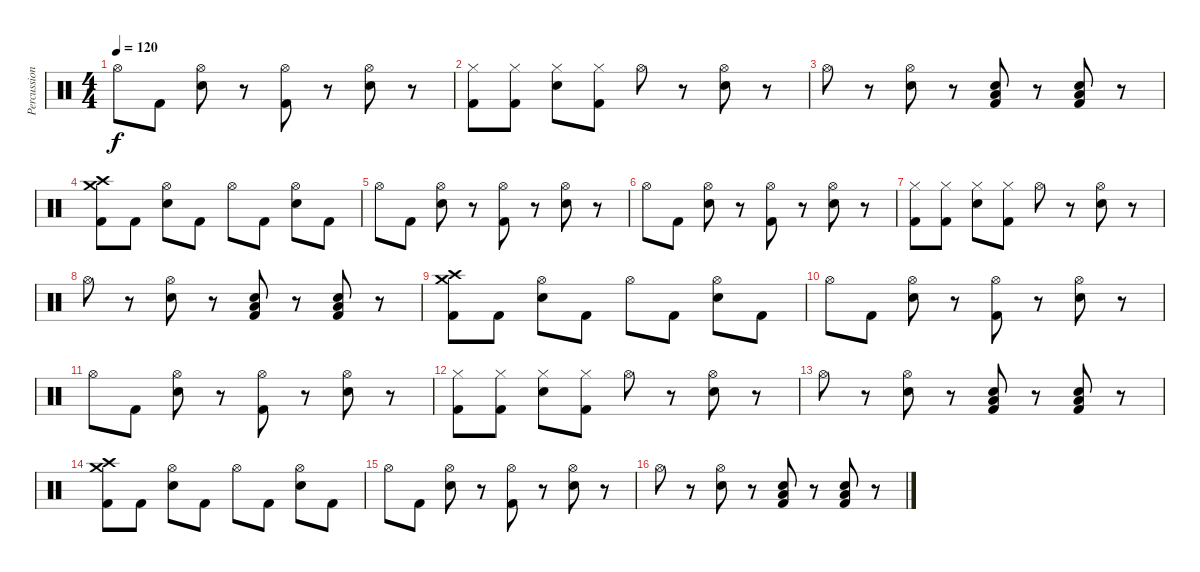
\track ("Percussion" "Percussion") {instrument percussion}
\staff {score}
\articulation defaults
\ts (4 4)
\tempo 120
\clef neutral
\ks c "Hi-Hat (open)".8{dy f} "Kick (hit) 2".8
("Hi-Hat (open)" "Electric Snare (hit)").8 r.8 ("Hi-Hat (open)" "Kick (hit) 2").8 r.8 ("Hi-Hat (open)" "Electric Snare (hit)").8 r.8 |
("Hi-Hat (closed)" "Kick (hit) 2").8 ("Hi-Hat (closed)" "Kick (hit) 2").8 ("Hi-Hat (closed)" "Electric Snare (hit)").8 ("Hi-Hat (closed)" "Kick (hit) 2").8 "Hi-Hat (open)".8 r.8 ("Hi-Hat (open)" "Electric Snare (hit)").8 r.8 |
"Hi-Hat (open)".8 r.8 ("Hi-Hat (open)" "Electric Snare (hit)").8 r.8 ("Electric Snare (hit)" "Low Floor Tom (hit)" "Kick (hit) 2").8 r.8 ("Electric Snare (hit)" "Low Floor Tom (hit)" "Kick (hit) 2").8 r.8 |
("Crash medium (hit)" "Crash high (hit)" "Kick (hit) 2").8 "Kick (hit) 2".8 ("Hi-Hat (open)" "Electric Snare (hit)").8 "Kick (hit) 2".8 "Hi-Hat (open)".8 "Kick (hit) 2".8 ("Hi-Hat (open)" "Electric Snare (hit)").8 "Kick (hit) 2".8 |
"Hi-Hat (open)".8 "Kick (hit) 2".8 ("Hi-Hat (open)" "Electric Snare (hit)").8 r.8 ("Hi-Hat (open)" "Kick (hit) 2").8 r.8 ("Hi-Hat (open)" "Electric Snare (hit)").8 r.8 |
"Hi-Hat (open)".8 "Kick (hit) 2".8 ("Hi-Hat (open)" "Electric Snare (hit)").8 r.8 ("Hi-Hat (open)" "Kick (hit) 2").8 r.8 ("Hi-Hat (open)" "Electric Snare (hit)").8 r.8 |
("Hi-Hat (closed)" "Kick (hit) 2").8 ("Hi-Hat (closed)" "Kick (hit) 2").8 ("Hi-Hat (closed)" "Electric Snare (hit)").8 ("Hi-Hat (closed)" "Kick (hit) 2").8 "Hi-Hat (open)".8 r.8 ("Hi-Hat (open)" "Electric Snare (hit)").8 r.8 |
"Hi-Hat (open)".8 r.8 ("Hi-Hat (open)" "Electric Snare (hit)").8 r.8 ("Electric Snare (hit)" "Low Floor Tom (hit)" "Kick (hit) 2").8 r.8 ("Electric Snare (hit)" "Low Floor Tom (hit)" "Kick (hit) 2").8 r.8 |
("Crash medium (hit)" "Crash high (hit)" "Kick (hit) 2").8 "Kick (hit) 2".8 ("Hi-Hat (open)" "Electric Snare (hit)").8 "Kick (hit) 2".8 "Hi-Hat (open)".8 "Kick (hit) 2".8 ("Hi-Hat (open)" "Electric Snare (hit)").8 "Kick (hit) 2".8 |
"Hi-Hat (open)".8 "Kick (hit) 2".8 ("Hi-Hat (open)" "Electric Snare (hit)").8 r.8 ("Hi-Hat (open)" "Kick (hit) 2").8 r.8 ("Hi-Hat (open)" "Electric Snare (hit)").8 r.8 |
"Hi-Hat (open)".8 "Kick (hit) 2".8 ("Hi-Hat (open)" "Electric Snare (hit)").8 r.8 ("Hi-Hat (open)" "Kick (hit) 2").8 r.8 ("Hi-Hat (open)" "Electric Snare (hit)").8 r.8 |
("Hi-Hat (closed)" "Kick (hit) 2").8 ("Hi-Hat (closed)" "Kick (hit) 2").8 ("Hi-Hat (closed)" "Electric Snare (hit)").8 ("Hi-Hat (closed)" "Kick (hit) 2").8 "Hi-Hat (open)".8 r.8 ("Hi-Hat (open)" "Electric Snare (hit)").8 r.8 |
"Hi-Hat (open)".8 r.8 ("Hi-Hat (open)" "Electric Snare (hit)").8 r.8 ("Electric Snare (hit)" "Low Floor Tom (hit)" "Kick (hit) 2").8 r.8 ("Electric Snare (hit)" "Low Floor Tom (hit)" "Kick (hit) 2").8 r.8 |
("Crash medium (hit)" "Crash high (hit)" "Kick (hit) 2").8 "Kick (hit) 2".8 ("Hi-Hat (open)" "Electric Snare (hit)").8 "Kick (hit) 2".8 "Hi-Hat (open)".8 "Kick (hit) 2".8 ("Hi-Hat (open)" "Electric Snare (hit)").8 "Kick (hit) 2".8 |
"Hi-Hat (open)".8 "Kick (hit) 2".8 ("Hi-Hat (open)" "Electric Snare (hit)").8 r.8 ("Hi-Hat (open)" "Kick (hit) 2").8 r.8 ("Hi-Hat (open)" "Electric Snare (hit)").8 r.8 |
"Hi-Hat (open)".8 r.8 ("Hi-Hat (open)" "Electric Snare (hit)").8 r.8 ("Electric Snare (hit)" "Low Floor Tom (hit)" "Kick (hit) 2").8 r.8 ("Electric Snare (hit)" "Low Floor Tom (hit)" "Kick (hit) 2").8 r.8
